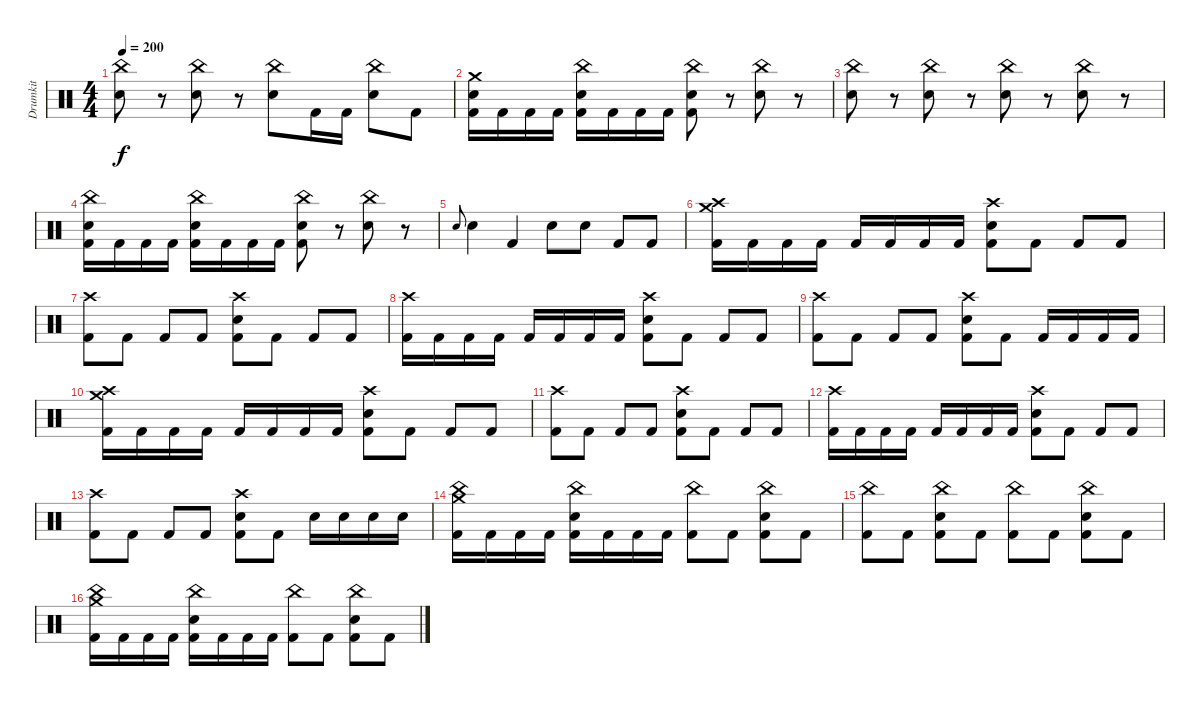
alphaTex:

\track ("Drumkit" "Drumkit") {instrument percussion}
\staff {score}
\articulation defaults
\ts (4 4)
\tempo 200
\clef neutral
\ks c
("China (hit)" "Electric Snare (hit)").8{dy f} r.8 ("China (hit)" "Electric Snare (hit)").8 r.8 ("China (hit)" "Electric Snare (hit)").8 "Kick (hit) 2".16 "Kick (hit) 2".16 ("China (hit)" "Electric Snare (hit)").8 "Kick (hit) 2".8 |
("Crash medium (hit)" "Electric Snare (hit)" "Kick (hit) 2").16 "Kick (hit) 2".16 "Kick (hit) 2".16 "Kick (hit) 2".16 ("China (hit)" "Electric Snare (hit)" "Kick (hit) 2").16 "Kick (hit) 2".16 "Kick (hit) 2".16 "Kick (hit) 2".16 ("China (hit)" "Electric Snare (hit)" "Kick (hit) 2").8 r.8 ("China (hit)" "Electric Snare (hit)").8 r.8 |
("China (hit)" "Electric Snare (hit)").8 r.8 ("China (hit)" "Electric Snare (hit)").8 r.8 ("China (hit)" "Electric Snare (hit)").8 r.8 ("China (hit)" "Electric Snare (hit)").8 r.8 |
("China (hit)" "Electric Snare (hit)" "Kick (hit) 2").16 "Kick (hit) 2".16 "Kick (hit) 2".16 "Kick (hit) 2".16 ("China (hit)" "Electric Snare (hit)" "Kick (hit) 2").16 "Kick (hit) 2".16 "Kick (hit) 2".16 "Kick (hit) 2".16 ("China (hit)" "Electric Snare (hit)" "Kick (hit) 2").8 r.8 ("China (hit)" "Electric Snare (hit)").8 r.8 |
"Snare (hit)".8{gr onbeat} "Electric Snare (hit)".4 "Kick (hit) 2".4 "Electric Snare (hit)".8 "Electric Snare (hit)".8 "Kick (hit) 2".8 "Kick (hit) 2".8 |
("Crash medium (hit)" "Crash high (hit)" "Kick (hit) 2").16 "Kick (hit) 2".16 "Kick (hit) 2".16 "Kick (hit) 2".16 "Kick (hit) 2".16 "Kick (hit) 2".16 "Kick (hit) 2".16 "Kick (hit) 2".16 ("Crash high (hit)" "Electric Snare (hit)" "Kick (hit) 2").8 "Kick (hit) 2".8 "Kick (hit) 2".8 "Kick (hit) 2".8 |
("Crash high (hit)" "Kick (hit) 2").8 "Kick (hit) 2".8 "Kick (hit) 2".8 "Kick (hit) 2".8 ("Crash high (hit)" "Electric Snare (hit)" "Kick (hit) 2").8 "Kick (hit) 2".8 "Kick (hit) 2".8 "Kick (hit) 2".8 |
("Crash high (hit)" "Kick (hit) 2").16 "Kick (hit) 2".16 "Kick (hit) 2".16 "Kick (hit) 2".16 "Kick (hit) 2".16 "Kick (hit) 2".16 "Kick (hit) 2".16 "Kick (hit) 2".16 ("Crash high (hit)" "Electric Snare (hit)" "Kick (hit) 2").8 "Kick (hit) 2".8 "Kick (hit) 2".8 "Kick (hit) 2".8 |
("Crash high (hit)" "Kick (hit) 2").8 "Kick (hit) 2".8 "Kick (hit) 2".8 "Kick (hit) 2".8 ("Crash high (hit)" "Electric Snare (hit)" "Kick (hit) 2").8 "Kick (hit) 2".8 "Kick (hit) 2".16 "Kick (hit) 2".16 "Kick (hit) 2".16 "Kick (hit) 2".16 |
("Crash medium (hit)" "Crash high (hit)" "Kick (hit) 2").16 "Kick (hit) 2".16 "Kick (hit) 2".16 "Kick (hit) 2".16 "Kick (hit) 2".16 "Kick (hit) 2".16 "Kick (hit) 2".16 "Kick (hit) 2".16 ("Crash high (hit)" "Electric Snare (hit)" "Kick (hit) 2").8 "Kick (hit) 2".8 "Kick (hit) 2".8 "Kick (hit) 2".8 |
("Crash high (hit)" "Kick (hit) 2").8 "Kick (hit) 2".8 "Kick (hit) 2".8 "Kick (hit) 2".8 ("Crash high (hit)" "Electric Snare (hit)" "Kick (hit) 2").8 "Kick (hit) 2".8 "Kick (hit) 2".8 "Kick (hit) 2".8 |
("Crash high (hit)" "Kick (hit) 2").16 "Kick (hit) 2".16 "Kick (hit) 2".16 "Kick (hit) 2".16 "Kick (hit) 2".16 "Kick (hit) 2".16 "Kick (hit) 2".16 "Kick (hit) 2".16 ("Crash high (hit)" "Electric Snare (hit)" "Kick (hit) 2").8 "Kick (hit) 2".8 "Kick (hit) 2".8 "Kick (hit) 2".8 |
("Crash high (hit)" "Kick (hit) 2").8 "Kick (hit) 2".8 "Kick (hit) 2".8 "Kick (hit) 2".8 ("Crash high (hit)" "Electric Snare (hit)" "Kick (hit) 2").8 "Kick (hit) 2".8 "Electric Snare (hit)".16 "Electric Snare (hit)".16 "Electric Snare (hit)".16 "Electric Snare (hit)".16 |
("Crash medium (hit)" "China (hit)" "Kick (hit) 2").16 "Kick (hit) 2".16 "Kick (hit) 2".16 "Kick (hit) 2".16 ("China (hit)" "Electric Snare (hit)" "Kick (hit) 2").16 "Kick (hit) 2".16 "Kick (hit) 2".16 "Kick (hit) 2".16 ("China (hit)" "Kick (hit) 2").8 "Kick (hit) 2".8 ("China (hit)" "Electric Snare (hit)" "Kick (hit) 2").8 "Kick (hit) 2".8 |
("China (hit)" "Kick (hit) 2").8 "Kick (hit) 2".8 ("China (hit)" "Electric Snare (hit)" "Kick (hit) 2").8 "Kick (hit) 2".8 ("China (hit)" "Kick (hit) 2").8 "Kick (hit) 2".8 ("China (hit)" "Electric Snare (hit)" "Kick (hit) 2").8 "Kick (hit) 2".8 |
("Crash medium (hit)" "China (hit)" "Kick (hit) 2").16 "Kick (hit) 2".16 "Kick (hit) 2".16 "Kick (hit) 2".16 ("China (hit)" "Electric Snare (hit)" "Kick (hit) 2").16 "Kick (hit) 2".16 "Kick (hit) 2".16 "Kick (hit) 2".16 ("China (hit)" "Kick (hit) 2").8 "Kick (hit) 2".8 ("China (hit)" "Electric Snare (hit)" "Kick (hit) 2").8 "Kick (hit) 2".8
